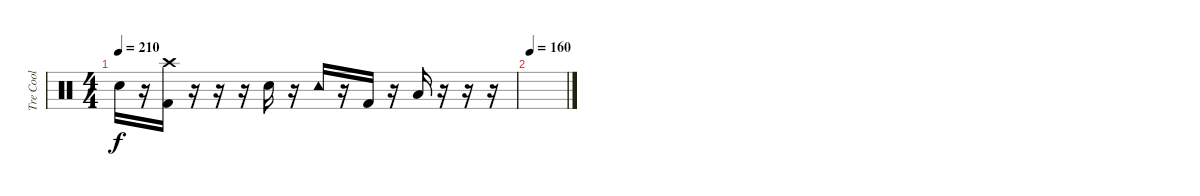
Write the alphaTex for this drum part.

\track ("Tre Cool" "Tre Cool") {instrument percussion}
\staff {score}
\articulation defaults
\ts (4 4)
\tempo 210
\clef neutral
\ks c "Snare (hit) 2".16{dy f}
r.16 ("Crash high (hit)" "Kick (hit) 2").16 r.16 r.16 r.16 "Snare (hit) 2".16 r.16 "Tambourine (hit)".16 r.16 "Kick (hit) 2".16 r.16 "Low Floor Tom (hit)".16 r.16 r.16 r.16 |
\tempo 160
